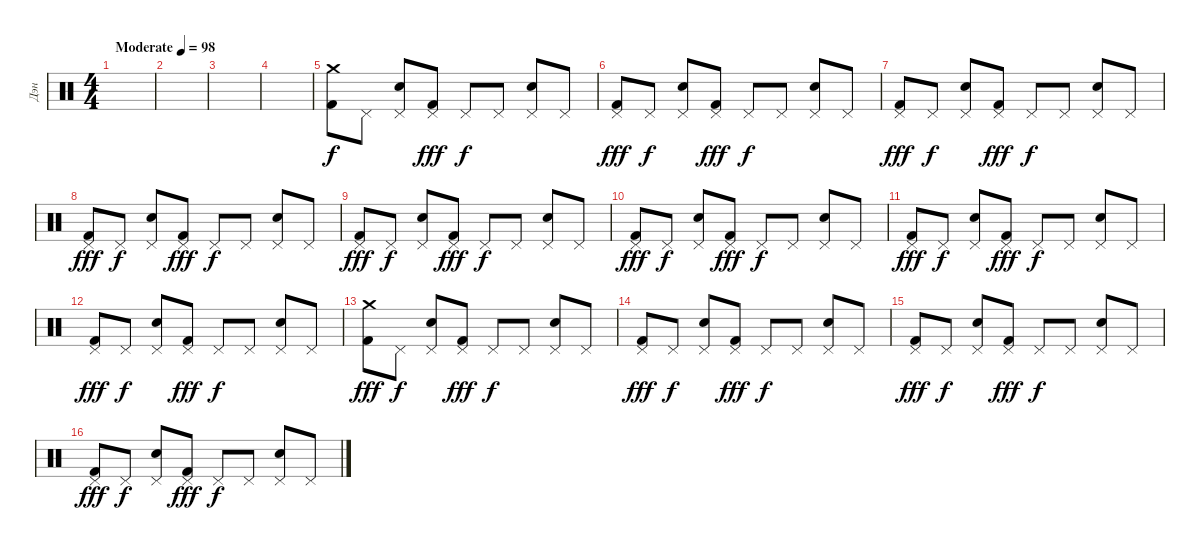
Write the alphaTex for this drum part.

\track ("Дэн" "Дэн") {instrument percussion}
\staff {score}
\articulation defaults
\ts (4 4)
\tempo (98 "Moderate")
\clef neutral
\ks c
|
|
|
|
("Kick (hit) 2" "Crash medium (hit)").8 "Pedal Hi-Hat (hit)".8{dy f} ("Electric Snare (hit)" "Pedal Hi-Hat (hit)").8 ("Kick (hit) 2" "Pedal Hi-Hat (hit)").8{dy fff} "Pedal Hi-Hat (hit)".8{dy f} "Pedal Hi-Hat (hit)".8 ("Electric Snare (hit)" "Pedal Hi-Hat (hit)").8 "Pedal Hi-Hat (hit)".8 |
("Kick (hit) 2" "Pedal Hi-Hat (hit)").8{dy fff} "Pedal Hi-Hat (hit)".8{dy f} ("Electric Snare (hit)" "Pedal Hi-Hat (hit)").8 ("Kick (hit) 2" "Pedal Hi-Hat (hit)").8{dy fff} "Pedal Hi-Hat (hit)".8{dy f} "Pedal Hi-Hat (hit)".8 ("Electric Snare (hit)" "Pedal Hi-Hat (hit)").8 "Pedal Hi-Hat (hit)".8 |
("Kick (hit) 2" "Pedal Hi-Hat (hit)").8{dy fff} "Pedal Hi-Hat (hit)".8{dy f} ("Electric Snare (hit)" "Pedal Hi-Hat (hit)").8 ("Kick (hit) 2" "Pedal Hi-Hat (hit)").8{dy fff} "Pedal Hi-Hat (hit)".8{dy f} "Pedal Hi-Hat (hit)".8 ("Electric Snare (hit)" "Pedal Hi-Hat (hit)").8 "Pedal Hi-Hat (hit)".8 |
("Kick (hit) 2" "Pedal Hi-Hat (hit)").8{dy fff} "Pedal Hi-Hat (hit)".8{dy f} ("Electric Snare (hit)" "Pedal Hi-Hat (hit)").8 ("Kick (hit) 2" "Pedal Hi-Hat (hit)").8{dy fff} "Pedal Hi-Hat (hit)".8{dy f} "Pedal Hi-Hat (hit)".8 ("Electric Snare (hit)" "Pedal Hi-Hat (hit)").8 "Pedal Hi-Hat (hit)".8 |
("Kick (hit) 2" "Pedal Hi-Hat (hit)").8{dy fff} "Pedal Hi-Hat (hit)".8{dy f} ("Electric Snare (hit)" "Pedal Hi-Hat (hit)").8 ("Kick (hit) 2" "Pedal Hi-Hat (hit)").8{dy fff} "Pedal Hi-Hat (hit)".8{dy f} "Pedal Hi-Hat (hit)".8 ("Electric Snare (hit)" "Pedal Hi-Hat (hit)").8 "Pedal Hi-Hat (hit)".8 |
("Kick (hit) 2" "Pedal Hi-Hat (hit)").8{dy fff} "Pedal Hi-Hat (hit)".8{dy f} ("Electric Snare (hit)" "Pedal Hi-Hat (hit)").8 ("Kick (hit) 2" "Pedal Hi-Hat (hit)").8{dy fff} "Pedal Hi-Hat (hit)".8{dy f} "Pedal Hi-Hat (hit)".8 ("Electric Snare (hit)" "Pedal Hi-Hat (hit)").8 "Pedal Hi-Hat (hit)".8 |
("Kick (hit) 2" "Pedal Hi-Hat (hit)").8{dy fff} "Pedal Hi-Hat (hit)".8{dy f} ("Electric Snare (hit)" "Pedal Hi-Hat (hit)").8 ("Kick (hit) 2" "Pedal Hi-Hat (hit)").8{dy fff} "Pedal Hi-Hat (hit)".8{dy f} "Pedal Hi-Hat (hit)".8 ("Electric Snare (hit)" "Pedal Hi-Hat (hit)").8 "Pedal Hi-Hat (hit)".8 |
("Kick (hit) 2" "Pedal Hi-Hat (hit)").8{dy fff} "Pedal Hi-Hat (hit)".8{dy f} ("Electric Snare (hit)" "Pedal Hi-Hat (hit)").8 ("Kick (hit) 2" "Pedal Hi-Hat (hit)").8{dy fff} "Pedal Hi-Hat (hit)".8{dy f} "Pedal Hi-Hat (hit)".8 ("Electric Snare (hit)" "Pedal Hi-Hat (hit)").8 "Pedal Hi-Hat (hit)".8 |
("Kick (hit) 2" "Crash medium (hit)").8{dy fff} "Pedal Hi-Hat (hit)".8{dy f} ("Electric Snare (hit)" "Pedal Hi-Hat (hit)").8 ("Kick (hit) 2" "Pedal Hi-Hat (hit)").8{dy fff} "Pedal Hi-Hat (hit)".8{dy f} "Pedal Hi-Hat (hit)".8 ("Electric Snare (hit)" "Pedal Hi-Hat (hit)").8 "Pedal Hi-Hat (hit)".8 |
("Kick (hit) 2" "Pedal Hi-Hat (hit)").8{dy fff} "Pedal Hi-Hat (hit)".8{dy f} ("Electric Snare (hit)" "Pedal Hi-Hat (hit)").8 ("Kick (hit) 2" "Pedal Hi-Hat (hit)").8{dy fff} "Pedal Hi-Hat (hit)".8{dy f} "Pedal Hi-Hat (hit)".8 ("Electric Snare (hit)" "Pedal Hi-Hat (hit)").8 "Pedal Hi-Hat (hit)".8 |
("Kick (hit) 2" "Pedal Hi-Hat (hit)").8{dy fff} "Pedal Hi-Hat (hit)".8{dy f} ("Electric Snare (hit)" "Pedal Hi-Hat (hit)").8 ("Kick (hit) 2" "Pedal Hi-Hat (hit)").8{dy fff} "Pedal Hi-Hat (hit)".8{dy f} "Pedal Hi-Hat (hit)".8 ("Electric Snare (hit)" "Pedal Hi-Hat (hit)").8 "Pedal Hi-Hat (hit)".8 |
("Kick (hit) 2" "Pedal Hi-Hat (hit)").8{dy fff} "Pedal Hi-Hat (hit)".8{dy f} ("Electric Snare (hit)" "Pedal Hi-Hat (hit)").8 ("Kick (hit) 2" "Pedal Hi-Hat (hit)").8{dy fff} "Pedal Hi-Hat (hit)".8{dy f} "Pedal Hi-Hat (hit)".8 ("Electric Snare (hit)" "Pedal Hi-Hat (hit)").8 "Pedal Hi-Hat (hit)".8
